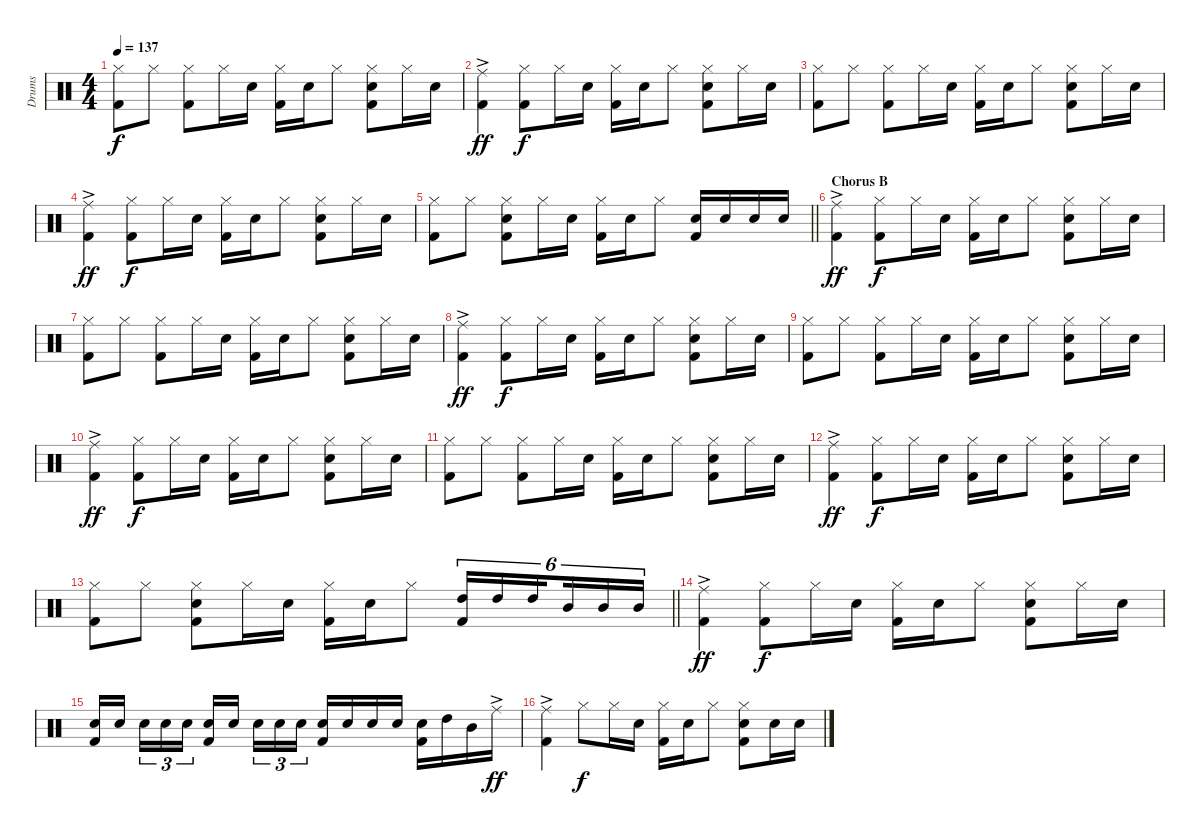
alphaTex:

\track ("Drums" "Drums") {instrument percussion}
\staff {score}
\articulation defaults
\ts (4 4)
\tempo 137
\clef neutral
\ks c
("Hi-Hat (closed)" "Kick (hit) 2").8{dy f} "Hi-Hat (closed)".8 ("Hi-Hat (closed)" "Kick (hit) 2").8 "Hi-Hat (closed)".16 "Electric Snare (hit)".16 ("Hi-Hat (closed)" "Kick (hit) 2").16 "Electric Snare (hit)".16 "Hi-Hat (closed)".8 ("Hi-Hat (closed)" "Electric Snare (hit)" "Kick (hit) 2").8 "Hi-Hat (closed)".16 "Electric Snare (hit)".16 |
("Ride (middle)"{ac} "Kick (hit) 2").4{dy ff} ("Hi-Hat (closed)" "Kick (hit) 2").8{dy f} "Hi-Hat (closed)".16 "Electric Snare (hit)".16 ("Hi-Hat (closed)" "Kick (hit) 2").16 "Electric Snare (hit)".16 "Hi-Hat (closed)".8 ("Hi-Hat (closed)" "Electric Snare (hit)" "Kick (hit) 2").8 "Hi-Hat (closed)".16 "Electric Snare (hit)".16 |
("Hi-Hat (closed)" "Kick (hit) 2").8 "Hi-Hat (closed)".8 ("Hi-Hat (closed)" "Kick (hit) 2").8 "Hi-Hat (closed)".16 "Electric Snare (hit)".16 ("Hi-Hat (closed)" "Kick (hit) 2").16 "Electric Snare (hit)".16 "Hi-Hat (closed)".8 ("Hi-Hat (closed)" "Electric Snare (hit)" "Kick (hit) 2").8 "Hi-Hat (closed)".16 "Electric Snare (hit)".16 |
("Ride (middle)"{ac} "Kick (hit) 2").4{dy ff} ("Hi-Hat (closed)" "Kick (hit) 2").8{dy f} "Hi-Hat (closed)".16 "Electric Snare (hit)".16 ("Hi-Hat (closed)" "Kick (hit) 2").16 "Electric Snare (hit)".16 "Hi-Hat (closed)".8 ("Hi-Hat (closed)" "Electric Snare (hit)" "Kick (hit) 2").8 "Hi-Hat (closed)".16 "Electric Snare (hit)".16 |
\barLineRight lightlight
("Hi-Hat (closed)" "Kick (hit) 2").8 "Hi-Hat (closed)".8 ("Hi-Hat (closed)" "Electric Snare (hit)" "Kick (hit) 2").8 "Hi-Hat (closed)".16 "Electric Snare (hit)".16 ("Hi-Hat (closed)" "Kick (hit) 2").16 "Electric Snare (hit)".16 "Hi-Hat (closed)".8 ("Electric Snare (hit)" "Kick (hit) 2").16 "Electric Snare (hit)".16 "Electric Snare (hit)".16 "Electric Snare (hit)".16 |
\section ("" "Chorus B")
("Ride (middle)"{ac} "Kick (hit) 2").4{dy ff} ("Hi-Hat (closed)" "Kick (hit) 2").8{dy f} "Hi-Hat (closed)".16 "Electric Snare (hit)".16 ("Hi-Hat (closed)" "Kick (hit) 2").16 "Electric Snare (hit)".16 "Hi-Hat (closed)".8 ("Hi-Hat (closed)" "Electric Snare (hit)" "Kick (hit) 2").8 "Hi-Hat (closed)".16 "Electric Snare (hit)".16 |
("Hi-Hat (closed)" "Kick (hit) 2").8 "Hi-Hat (closed)".8 ("Hi-Hat (closed)" "Kick (hit) 2").8 "Hi-Hat (closed)".16 "Electric Snare (hit)".16 ("Hi-Hat (closed)" "Kick (hit) 2").16 "Electric Snare (hit)".16 "Hi-Hat (closed)".8 ("Hi-Hat (closed)" "Electric Snare (hit)" "Kick (hit) 2").8 "Hi-Hat (closed)".16 "Electric Snare (hit)".16 |
("Ride (middle)"{ac} "Kick (hit) 2").4{dy ff} ("Hi-Hat (closed)" "Kick (hit) 2").8{dy f} "Hi-Hat (closed)".16 "Electric Snare (hit)".16 ("Hi-Hat (closed)" "Kick (hit) 2").16 "Electric Snare (hit)".16 "Hi-Hat (closed)".8 ("Hi-Hat (closed)" "Electric Snare (hit)" "Kick (hit) 2").8 "Hi-Hat (closed)".16 "Electric Snare (hit)".16 |
("Hi-Hat (closed)" "Kick (hit) 2").8 "Hi-Hat (closed)".8 ("Hi-Hat (closed)" "Kick (hit) 2").8 "Hi-Hat (closed)".16 "Electric Snare (hit)".16 ("Hi-Hat (closed)" "Kick (hit) 2").16 "Electric Snare (hit)".16 "Hi-Hat (closed)".8 ("Hi-Hat (closed)" "Electric Snare (hit)" "Kick (hit) 2").8 "Hi-Hat (closed)".16 "Electric Snare (hit)".16 |
("Ride (middle)"{ac} "Kick (hit) 2").4{dy ff} ("Hi-Hat (closed)" "Kick (hit) 2").8{dy f} "Hi-Hat (closed)".16 "Electric Snare (hit)".16 ("Hi-Hat (closed)" "Kick (hit) 2").16 "Electric Snare (hit)".16 "Hi-Hat (closed)".8 ("Hi-Hat (closed)" "Electric Snare (hit)" "Kick (hit) 2").8 "Hi-Hat (closed)".16 "Electric Snare (hit)".16 |
("Hi-Hat (closed)" "Kick (hit) 2").8 "Hi-Hat (closed)".8 ("Hi-Hat (closed)" "Kick (hit) 2").8 "Hi-Hat (closed)".16 "Electric Snare (hit)".16 ("Hi-Hat (closed)" "Kick (hit) 2").16 "Electric Snare (hit)".16 "Hi-Hat (closed)".8 ("Hi-Hat (closed)" "Electric Snare (hit)" "Kick (hit) 2").8 "Hi-Hat (closed)".16 "Electric Snare (hit)".16 |
("Ride (middle)"{ac} "Kick (hit) 2").4{dy ff} ("Hi-Hat (closed)" "Kick (hit) 2").8{dy f} "Hi-Hat (closed)".16 "Electric Snare (hit)".16 ("Hi-Hat (closed)" "Kick (hit) 2").16 "Electric Snare (hit)".16 "Hi-Hat (closed)".8 ("Hi-Hat (closed)" "Electric Snare (hit)" "Kick (hit) 2").8 "Hi-Hat (closed)".16 "Electric Snare (hit)".16 |
\barLineRight lightlight
("Hi-Hat (closed)" "Kick (hit) 2").8 "Hi-Hat (closed)".8 ("Hi-Hat (closed)" "Electric Snare (hit)" "Kick (hit) 2").8 "Hi-Hat (closed)".16 "Electric Snare (hit)".16 ("Hi-Hat (closed)" "Kick (hit) 2").16 "Electric Snare (hit)".16 "Hi-Hat (closed)".8 ("High Tom (hit)" "Kick (hit) 2").16{tu (6 4)} "High Tom (hit)".16{tu (6 4)} "High Tom (hit)".16{tu (6 4) beam splitsecondary} "Mid Tom (hit)".16{tu (6 4)} "Mid Tom (hit)".16{tu (6 4)} "Mid Tom (hit)".16{tu (6 4)} |
\section ("" "")
("Ride (middle)"{ac} "Kick (hit) 2").4{dy ff} ("Hi-Hat (closed)" "Kick (hit) 2").8{dy f} "Hi-Hat (closed)".16 "Electric Snare (hit)".16 ("Hi-Hat (closed)" "Kick (hit) 2").16 "Electric Snare (hit)".16 "Hi-Hat (closed)".8 ("Hi-Hat (closed)" "Electric Snare (hit)" "Kick (hit) 2").8 "Hi-Hat (closed)".16 "Electric Snare (hit)".16 |
("Electric Snare (hit)" "Kick (hit) 2").16 "Electric Snare (hit)".16{beam splitsecondary} "Electric Snare (hit)".16{tu (3 2)} "Electric Snare (hit)".16{tu (3 2)} "Electric Snare (hit)".16{tu (3 2)} ("Electric Snare (hit)" "Kick (hit) 2").16 "Electric Snare (hit)".16{beam splitsecondary} "Electric Snare (hit)".16{tu (3 2)} "Electric Snare (hit)".16{tu (3 2)} "Electric Snare (hit)".16{tu (3 2)} ("Electric Snare (hit)" "Kick (hit) 2").16 "Electric Snare (hit)".16 "Electric Snare (hit)".16 "Electric Snare (hit)".16 ("Electric Snare (hit)" "Kick (hit) 2").16 "High Tom (hit)".16 "Mid Tom (hit)".16 "Ride (middle)"{ac}.16{dy ff} |
("Ride (middle)"{ac} "Kick (hit) 2").4 "Hi-Hat (closed)".8{dy f} "Hi-Hat (closed)".16 "Electric Snare (hit)".16 ("Hi-Hat (closed)" "Kick (hit) 2").16 "Electric Snare (hit)".16 "Hi-Hat (closed)".8 ("Hi-Hat (closed)" "Electric Snare (hit)" "Kick (hit) 2").8 "Electric Snare (hit)".16 "Electric Snare (hit)".16
